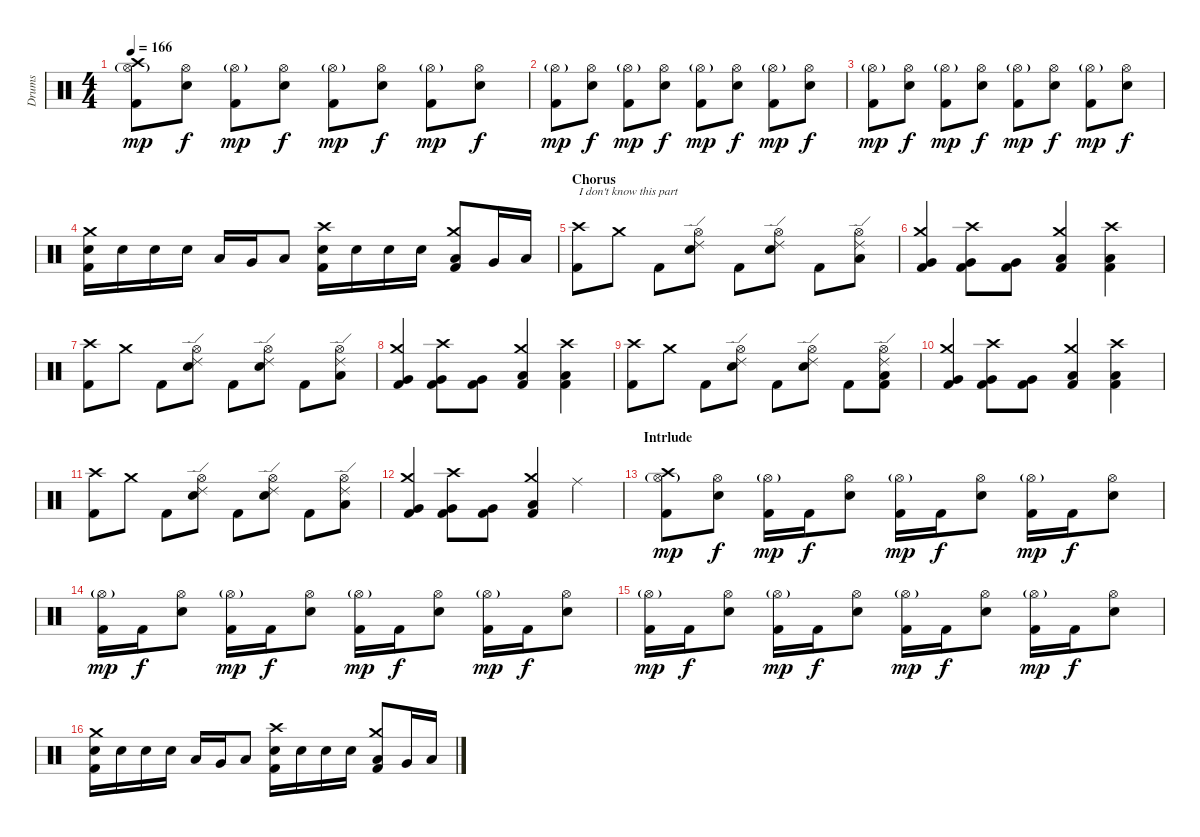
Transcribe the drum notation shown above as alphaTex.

\track ("Drums" "Drums") {instrument percussion}
\staff {score}
\articulation defaults
\ts (4 4)
\tempo 166
\clef neutral
\ks c
("Hi-Hat (open)"{g} "Crash high (hit)" "Kick (hit) 2").8{dy mp} ("Hi-Hat (open)" "Electric Snare (hit)").8{dy f} ("Hi-Hat (open)"{g} "Kick (hit) 2").8{dy mp} ("Hi-Hat (open)" "Electric Snare (hit)").8{dy f} ("Hi-Hat (open)"{g} "Kick (hit) 2").8{dy mp} ("Hi-Hat (open)" "Electric Snare (hit)").8{dy f} ("Hi-Hat (open)"{g} "Kick (hit) 2").8{dy mp} ("Hi-Hat (open)" "Electric Snare (hit)").8{dy f} |
("Hi-Hat (open)"{g} "Kick (hit) 2").8{dy mp} ("Hi-Hat (open)" "Electric Snare (hit)").8{dy f} ("Hi-Hat (open)"{g} "Kick (hit) 2").8{dy mp} ("Hi-Hat (open)" "Electric Snare (hit)").8{dy f} ("Hi-Hat (open)"{g} "Kick (hit) 2").8{dy mp} ("Hi-Hat (open)" "Electric Snare (hit)").8{dy f} ("Hi-Hat (open)"{g} "Kick (hit) 2").8{dy mp} ("Hi-Hat (open)" "Electric Snare (hit)").8{dy f} |
("Hi-Hat (open)"{g} "Kick (hit) 2").8{dy mp} ("Hi-Hat (open)" "Electric Snare (hit)").8{dy f} ("Hi-Hat (open)"{g} "Kick (hit) 2").8{dy mp} ("Hi-Hat (open)" "Electric Snare (hit)").8{dy f} ("Hi-Hat (open)"{g} "Kick (hit) 2").8{dy mp} ("Hi-Hat (open)" "Electric Snare (hit)").8{dy f} ("Hi-Hat (open)"{g} "Kick (hit) 2").8{dy mp} ("Hi-Hat (open)" "Electric Snare (hit)").8{dy f} |
("Crash medium (hit)" "Electric Snare (hit)" "Kick (hit) 2").16 "Electric Snare (hit)".16 "Electric Snare (hit)".16 "Electric Snare (hit)".16 "Low Tom (hit)".16 "Very Low Tom (hit)".16 "Low Floor Tom (hit)".8 ("Crash high (hit)" "Electric Snare (hit)" "Kick (hit) 2").16 "Electric Snare (hit)".16 "Electric Snare (hit)".16 "Electric Snare (hit)".16 ("Crash medium (hit)" "Low Tom (hit)" "Kick (hit) 2").8 "Very Low Tom (hit)".16 "Low Floor Tom (hit)".16 |
\section ("" "Chorus")
("Crash high (hit)" "Kick (hit) 2").8{txt "I don't know this part"} "Crash medium (hit)".8 "Kick (hit) 2".8 ("Hi-Hat (open)" "Ride (edge) 2" "Electric Snare (hit)").8 "Kick (hit) 2".8 ("Hi-Hat (open)" "Ride (edge) 2" "Electric Snare (hit)").8 "Kick (hit) 2".8 ("Hi-Hat (open)" "Ride (edge) 2" "Low Tom (hit)").8 |
("Crash medium (hit)" "Very Low Tom (hit)" "Kick (hit) 2").4 ("Crash high (hit)" "Very Low Tom (hit)" "Kick (hit) 2").8 ("Very Low Tom (hit)" "Kick (hit) 2").8 ("Crash medium (hit)" "Low Floor Tom (hit)" "Kick (hit) 2").4 ("Crash high (hit)" "Low Floor Tom (hit)" "Kick (hit) 2").4 |
("Crash high (hit)" "Kick (hit) 2").8 "Crash medium (hit)".8 "Kick (hit) 2".8 ("Hi-Hat (open)" "Ride (edge) 2" "Electric Snare (hit)").8 "Kick (hit) 2".8 ("Hi-Hat (open)" "Ride (edge) 2" "Electric Snare (hit)").8 "Kick (hit) 2".8 ("Hi-Hat (open)" "Ride (edge) 2" "Low Tom (hit)").8 |
("Crash medium (hit)" "Very Low Tom (hit)" "Kick (hit) 2").4 ("Crash high (hit)" "Very Low Tom (hit)" "Kick (hit) 2").8 ("Very Low Tom (hit)" "Kick (hit) 2").8 ("Crash medium (hit)" "Low Floor Tom (hit)" "Kick (hit) 2").4 ("Crash high (hit)" "Low Floor Tom (hit)" "Kick (hit) 2").4 |
("Crash high (hit)" "Kick (hit) 2").8 "Crash medium (hit)".8 "Kick (hit) 2".8 ("Hi-Hat (open)" "Ride (edge) 2" "Electric Snare (hit)").8 "Kick (hit) 2".8 ("Hi-Hat (open)" "Ride (edge) 2" "Electric Snare (hit)").8 "Kick (hit) 2".8 ("Hi-Hat (open)" "Ride (edge) 2" "Low Tom (hit)" "Kick (hit) 2").8 |
("Crash medium (hit)" "Very Low Tom (hit)" "Kick (hit) 2").4 ("Crash high (hit)" "Very Low Tom (hit)" "Kick (hit) 2").8 ("Very Low Tom (hit)" "Kick (hit) 2").8 ("Crash medium (hit)" "Low Floor Tom (hit)" "Kick (hit) 2").4 ("Crash high (hit)" "Low Floor Tom (hit)" "Kick (hit) 2").4 |
("Crash high (hit)" "Kick (hit) 2").8 "Crash medium (hit)".8 "Kick (hit) 2".8 ("Hi-Hat (open)" "Ride (edge) 2" "Electric Snare (hit)").8 "Kick (hit) 2".8 ("Hi-Hat (open)" "Ride (edge) 2" "Electric Snare (hit)").8 "Kick (hit) 2".8 ("Hi-Hat (open)" "Ride (edge) 2" "Low Tom (hit)").8 |
("Crash medium (hit)" "Very Low Tom (hit)" "Kick (hit) 2").4 ("Crash high (hit)" "Very Low Tom (hit)" "Kick (hit) 2").8 ("Very Low Tom (hit)" "Kick (hit) 2").8 ("Crash medium (hit)" "Low Floor Tom (hit)" "Kick (hit) 2").4 "Ride (middle)".4 |
\section ("" "Intrlude")
("Hi-Hat (open)"{g} "Crash high (hit)" "Kick (hit) 2").8{dy mp} ("Hi-Hat (open)" "Electric Snare (hit)").8{dy f} ("Hi-Hat (open)"{g} "Kick (hit) 2").16{dy mp} "Kick (hit) 2".16{dy f} ("Hi-Hat (open)" "Electric Snare (hit)").8 ("Hi-Hat (open)"{g} "Kick (hit) 2").16{dy mp} "Kick (hit) 2".16{dy f} ("Hi-Hat (open)" "Electric Snare (hit)").8 ("Hi-Hat (open)"{g} "Kick (hit) 2").16{dy mp} "Kick (hit) 2".16{dy f} ("Hi-Hat (open)" "Electric Snare (hit)").8 |
("Hi-Hat (open)"{g} "Kick (hit) 2").16{dy mp} "Kick (hit) 2".16{dy f} ("Hi-Hat (open)" "Electric Snare (hit)").8 ("Hi-Hat (open)"{g} "Kick (hit) 2").16{dy mp} "Kick (hit) 2".16{dy f} ("Hi-Hat (open)" "Electric Snare (hit)").8 ("Hi-Hat (open)"{g} "Kick (hit) 2").16{dy mp} "Kick (hit) 2".16{dy f} ("Hi-Hat (open)" "Electric Snare (hit)").8 ("Hi-Hat (open)"{g} "Kick (hit) 2").16{dy mp} "Kick (hit) 2".16{dy f} ("Hi-Hat (open)" "Electric Snare (hit)").8 |
("Hi-Hat (open)"{g} "Kick (hit) 2").16{dy mp} "Kick (hit) 2".16{dy f} ("Hi-Hat (open)" "Electric Snare (hit)").8 ("Hi-Hat (open)"{g} "Kick (hit) 2").16{dy mp} "Kick (hit) 2".16{dy f} ("Hi-Hat (open)" "Electric Snare (hit)").8 ("Hi-Hat (open)"{g} "Kick (hit) 2").16{dy mp} "Kick (hit) 2".16{dy f} ("Hi-Hat (open)" "Electric Snare (hit)").8 ("Hi-Hat (open)"{g} "Kick (hit) 2").16{dy mp} "Kick (hit) 2".16{dy f} ("Hi-Hat (open)" "Electric Snare (hit)").8 |
("Crash medium (hit)" "Electric Snare (hit)" "Kick (hit) 2").16 "Electric Snare (hit)".16 "Electric Snare (hit)".16 "Electric Snare (hit)".16 "Low Tom (hit)".16 "Very Low Tom (hit)".16 "Low Floor Tom (hit)".8 ("Crash high (hit)" "Electric Snare (hit)" "Kick (hit) 2").16 "Electric Snare (hit)".16 "Electric Snare (hit)".16 "Electric Snare (hit)".16 ("Crash medium (hit)" "Low Tom (hit)" "Kick (hit) 2").8 "Very Low Tom (hit)".16 "Low Floor Tom (hit)".16
